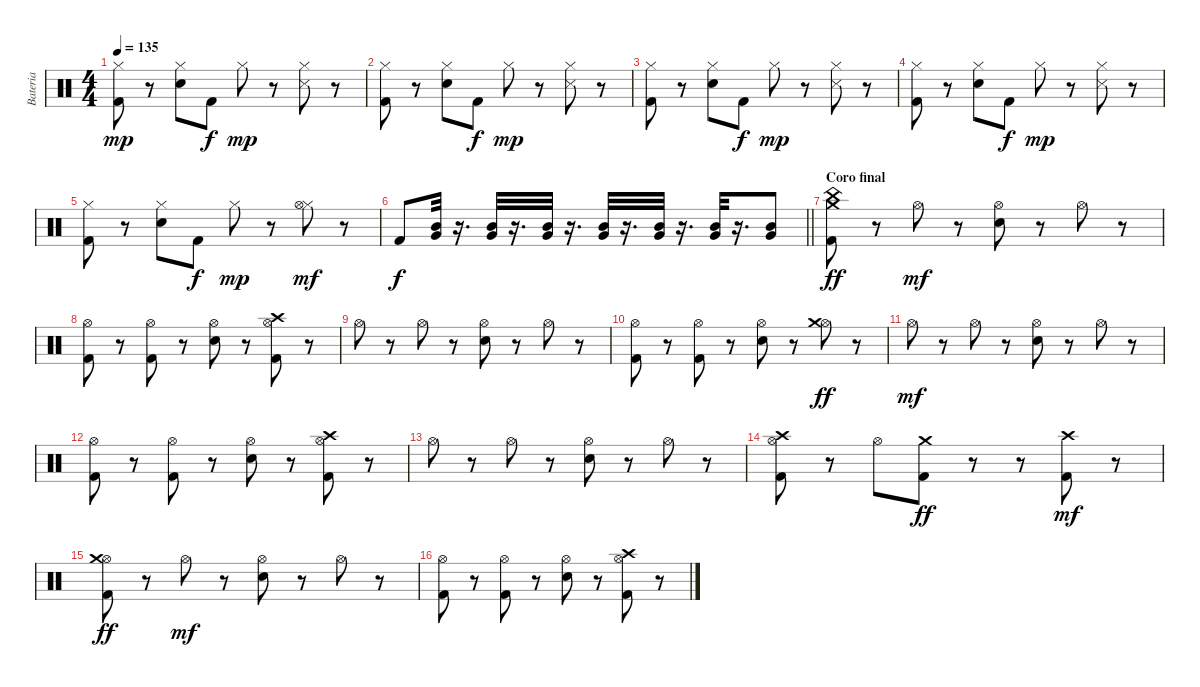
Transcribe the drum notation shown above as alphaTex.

\track ("Bateria" "Bateria") {instrument percussion}
\staff {score}
\articulation defaults
\ts (4 4)
\tempo 135
\clef neutral
\ks c
("Hi-Hat (closed)" "Kick (hit) 2").8{dy mp} r.8 ("Hi-Hat (closed)" "Snare (hit) 2").8 "Kick (hit) 2".8{dy f} "Hi-Hat (closed)".8{dy mp} r.8 ("Hi-Hat (closed)" "Snare (side stick) 3").8 r.8 |
("Hi-Hat (closed)" "Kick (hit) 2").8 r.8 ("Hi-Hat (closed)" "Snare (hit) 2").8 "Kick (hit) 2".8{dy f} "Hi-Hat (closed)".8{dy mp} r.8 ("Hi-Hat (closed)" "Snare (side stick) 3").8 r.8 |
("Hi-Hat (closed)" "Kick (hit) 2").8 r.8 ("Hi-Hat (closed)" "Snare (hit) 2").8 "Kick (hit) 2".8{dy f} "Hi-Hat (closed)".8{dy mp} r.8 ("Hi-Hat (closed)" "Snare (side stick) 3").8 r.8 |
("Hi-Hat (closed)" "Kick (hit) 2").8 r.8 ("Hi-Hat (closed)" "Snare (hit) 2").8 "Kick (hit) 2".8{dy f} "Hi-Hat (closed)".8{dy mp} r.8 ("Hi-Hat (closed)" "Snare (side stick) 3").8 r.8 |
("Hi-Hat (closed)" "Kick (hit) 2").8 r.8 ("Hi-Hat (closed)" "Snare (hit) 2").8 "Kick (hit) 2".8{dy f} "Hi-Hat (closed)".8{dy mp} r.8 ("Hi-Hat (closed)" "Hi-Hat (open)").8{dy mf} r.8 |
\barLineRight lightlight "Kick (hit) 2".8{dy f}
("Mid Tom (hit)" "Very Low Tom (hit)").32 r.16{d} ("Mid Tom (hit)" "Very Low Tom (hit)").32 r.16{d} ("Mid Tom (hit)" "Very Low Tom (hit)").32 r.16{d} ("Mid Tom (hit)" "Very Low Tom (hit)").32 r.16{d} ("Mid Tom (hit)" "Very Low Tom (hit)").32 r.16{d} ("Mid Tom (hit)" "Very Low Tom (hit)").32 r.16{d} ("Mid Tom (hit)" "Very Low Tom (hit)").8 |
\section ("" "Coro final")
("China (hit)" "Crash medium (hit)" "Kick (hit) 2").8{dy ff} r.8 "Hi-Hat (open)".8{dy mf} r.8 ("Hi-Hat (open)" "Electric Snare (hit)").8 r.8 "Hi-Hat (open)".8 r.8 |
("Hi-Hat (open)" "Kick (hit) 2").8 r.8 ("Hi-Hat (open)" "Kick (hit) 2").8 r.8 ("Hi-Hat (open)" "Electric Snare (hit)").8 r.8 ("Hi-Hat (open)" "Crash high (hit)" "Kick (hit) 2").8 r.8 |
"Hi-Hat (open)".8 r.8 "Hi-Hat (open)".8 r.8 ("Hi-Hat (open)" "Electric Snare (hit)").8 r.8 "Hi-Hat (open)".8 r.8 |
("Hi-Hat (open)" "Kick (hit) 2").8 r.8 ("Hi-Hat (open)" "Kick (hit) 2").8 r.8 ("Hi-Hat (open)" "Electric Snare (hit)").8 r.8 ("Hi-Hat (open)" "Crash medium (hit)").8{dy ff} r.8 |
"Hi-Hat (open)".8{dy mf} r.8 "Hi-Hat (open)".8 r.8 ("Hi-Hat (open)" "Electric Snare (hit)").8 r.8 "Hi-Hat (open)".8 r.8 |
("Hi-Hat (open)" "Kick (hit) 2").8 r.8 ("Hi-Hat (open)" "Kick (hit) 2").8 r.8 ("Hi-Hat (open)" "Electric Snare (hit)").8 r.8 ("Hi-Hat (open)" "Crash high (hit)" "Kick (hit) 2").8 r.8 |
"Hi-Hat (open)".8 r.8 "Hi-Hat (open)".8 r.8 ("Hi-Hat (open)" "Electric Snare (hit)").8 r.8 "Hi-Hat (open)".8 r.8 |
("Hi-Hat (open)" "Crash high (hit)" "Kick (hit) 2").8 r.8 "Hi-Hat (open)".8 ("Crash medium (hit)" "Kick (hit) 2").8{dy ff} r.8 r.8 ("Crash high (hit)" "Kick (hit) 2").8{dy mf} r.8 |
("Hi-Hat (open)" "Crash medium (hit)" "Kick (hit) 2").8{dy ff} r.8 "Hi-Hat (open)".8{dy mf} r.8 ("Hi-Hat (open)" "Electric Snare (hit)").8 r.8 "Hi-Hat (open)".8 r.8 |
("Hi-Hat (open)" "Kick (hit) 2").8 r.8 ("Hi-Hat (open)" "Kick (hit) 2").8 r.8 ("Hi-Hat (open)" "Electric Snare (hit)").8 r.8 ("Hi-Hat (open)" "Crash high (hit)" "Kick (hit) 2").8 r.8
